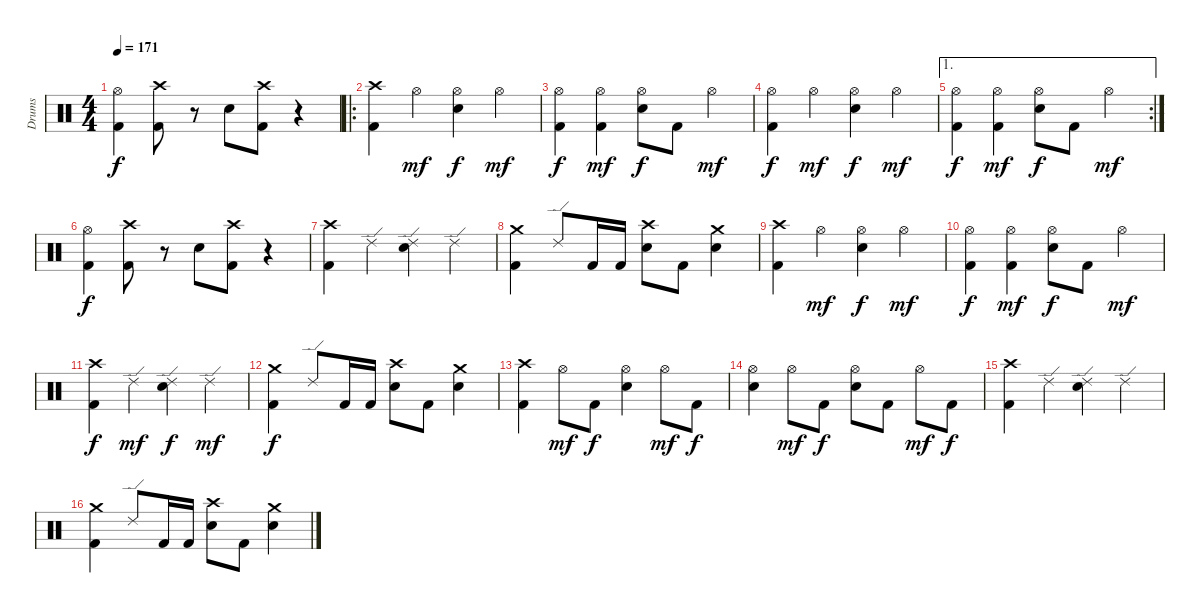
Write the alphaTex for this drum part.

\track ("Drums" "Drums") {instrument percussion}
\staff {score}
\articulation defaults
\ts (4 4)
\tempo 171
\clef neutral
\ks c
("Hi-Hat (open)" "Kick (hit) 2").4{dy f} ("Crash high (hit)" "Kick (hit) 2").8 r.8 "Electric Snare (hit)".8 ("Crash high (hit)" "Kick (hit) 2").8 r.4 |
\ro
("Crash high (hit)" "Kick (hit) 2").4 "Hi-Hat (open)".4{dy mf} ("Hi-Hat (open)" "Electric Snare (hit)").4{dy f} "Hi-Hat (open)".4{dy mf} |
("Hi-Hat (open)" "Kick (hit) 2").4{dy f} ("Hi-Hat (open)" "Kick (hit) 2").4{dy mf} ("Hi-Hat (open)" "Electric Snare (hit)").8{dy f} "Kick (hit) 2".8 "Hi-Hat (open)".4{dy mf} |
("Hi-Hat (open)" "Kick (hit) 2").4{dy f} "Hi-Hat (open)".4{dy mf} ("Hi-Hat (open)" "Electric Snare (hit)").4{dy f} "Hi-Hat (open)".4{dy mf} |
\ae 1
\rc 2
("Hi-Hat (open)" "Kick (hit) 2").4{dy f} ("Hi-Hat (open)" "Kick (hit) 2").4{dy mf} ("Hi-Hat (open)" "Electric Snare (hit)").8{dy f} "Kick (hit) 2".8 "Hi-Hat (open)".4{dy mf} |
("Hi-Hat (open)" "Kick (hit) 2").4{dy f} ("Crash high (hit)" "Kick (hit) 2").8 r.8 "Electric Snare (hit)".8 ("Crash high (hit)" "Kick (hit) 2").8 r.4 |
("Crash high (hit)" "Kick (hit) 2").4 "Ride (edge) 2".4 ("Ride (edge) 2" "Electric Snare (hit)").4 "Ride (edge) 2".4 |
("Crash medium (hit)" "Kick (hit) 2").4 "Ride (edge) 2".8 "Kick (hit) 2".16 "Kick (hit) 2".16 ("Crash high (hit)" "Electric Snare (hit)").8 "Kick (hit) 2".8 ("Crash medium (hit)" "Electric Snare (hit)").4 |
("Crash high (hit)" "Kick (hit) 2").4 "Hi-Hat (open)".4{dy mf} ("Hi-Hat (open)" "Electric Snare (hit)").4{dy f} "Hi-Hat (open)".4{dy mf} |
("Hi-Hat (open)" "Kick (hit) 2").4{dy f} ("Hi-Hat (open)" "Kick (hit) 2").4{dy mf} ("Hi-Hat (open)" "Electric Snare (hit)").8{dy f} "Kick (hit) 2".8 "Hi-Hat (open)".4{dy mf} |
("Crash high (hit)" "Kick (hit) 2").4{dy f} "Ride (edge) 2".4{dy mf} ("Ride (edge) 2" "Electric Snare (hit)").4{dy f} "Ride (edge) 2".4{dy mf} |
("Crash medium (hit)" "Kick (hit) 2").4{dy f} "Ride (edge) 2".8 "Kick (hit) 2".16 "Kick (hit) 2".16 ("Crash high (hit)" "Electric Snare (hit)").8 "Kick (hit) 2".8 ("Crash medium (hit)" "Electric Snare (hit)").4 |
("Crash high (hit)" "Kick (hit) 2").4 "Hi-Hat (open)".8{dy mf} "Kick (hit) 2".8{dy f} ("Hi-Hat (open)" "Electric Snare (hit)").4 "Hi-Hat (open)".8{dy mf} "Kick (hit) 2".8{dy f} |
("Hi-Hat (open)" "Electric Snare (hit)").4 "Hi-Hat (open)".8{dy mf} "Kick (hit) 2".8{dy f} ("Hi-Hat (open)" "Electric Snare (hit)").8 "Kick (hit) 2".8 "Hi-Hat (open)".8{dy mf} "Kick (hit) 2".8{dy f} |
("Crash high (hit)" "Kick (hit) 2").4 "Ride (edge) 2".4 ("Ride (edge) 2" "Electric Snare (hit)").4 "Ride (edge) 2".4 |
("Crash medium (hit)" "Kick (hit) 2").4 "Ride (edge) 2".8 "Kick (hit) 2".16 "Kick (hit) 2".16 ("Crash high (hit)" "Electric Snare (hit)").8 "Kick (hit) 2".8 ("Crash medium (hit)" "Electric Snare (hit)").4
